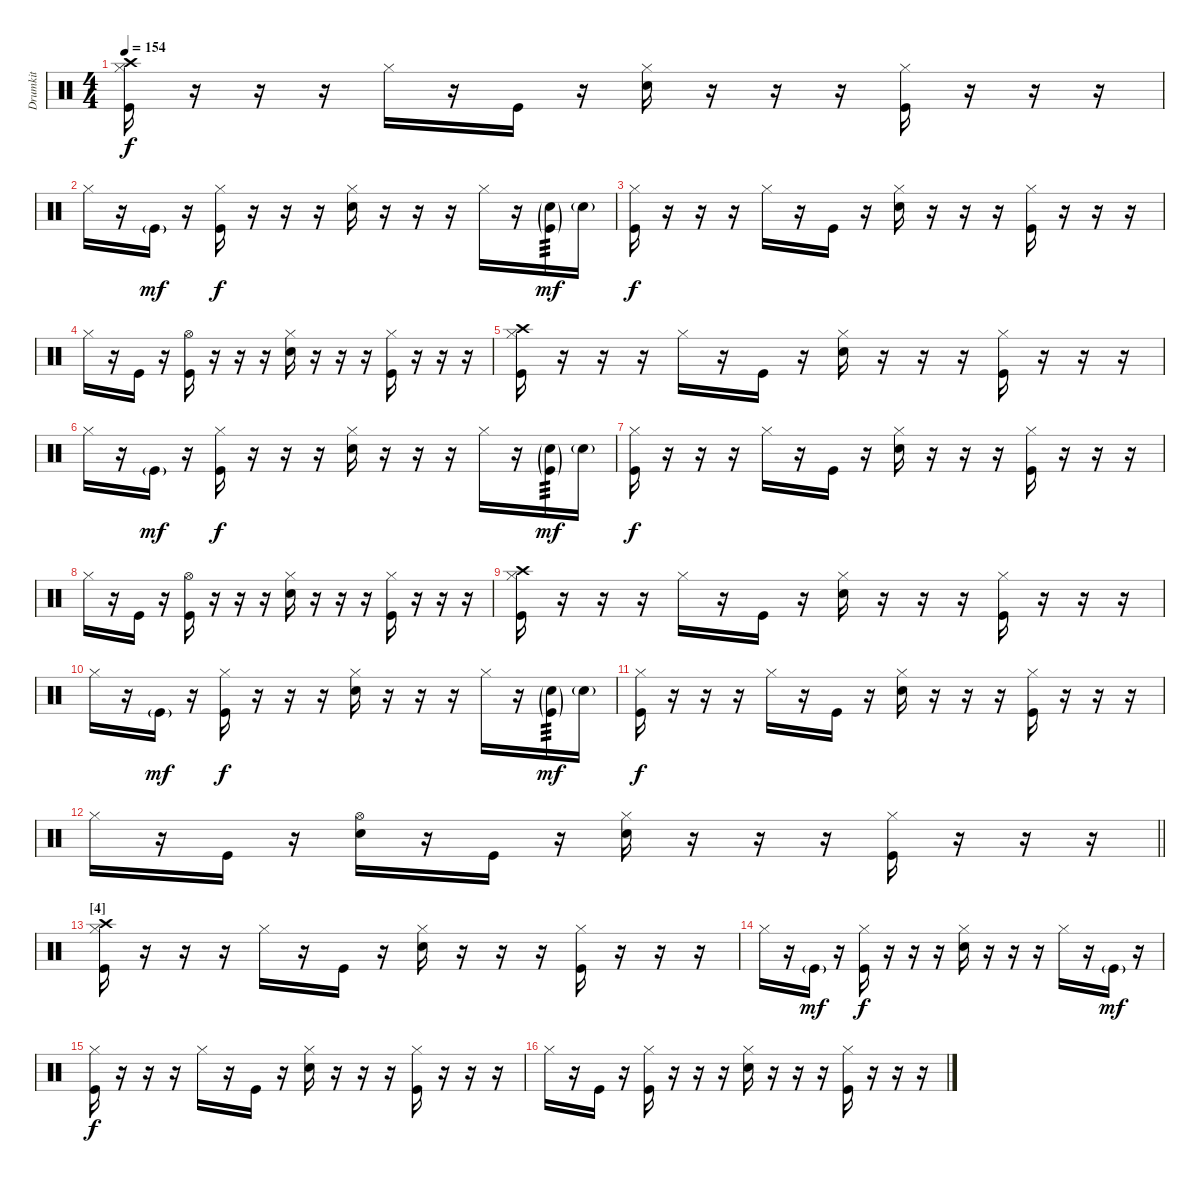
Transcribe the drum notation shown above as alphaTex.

\track ("Drumkit" "Drumkit") {instrument percussion}
\staff {score}
\articulation defaults
\ts (4 4)
\tempo 154
\clef neutral
\ks c
("Crash high (hit)" "Hi-Hat (closed)" "Kick (hit)").16{dy f} r.16 r.16 r.16 "Hi-Hat (closed)".16 r.16 "Kick (hit)".16 r.16 ("Hi-Hat (closed)" "Snare (hit) 2").16 r.16 r.16 r.16 ("Hi-Hat (closed)" "Kick (hit)").16 r.16 r.16 r.16 |
"Hi-Hat (closed)".16 r.16 "Kick (hit)"{g}.16{dy mf} r.16 ("Hi-Hat (closed)" "Kick (hit)").16{dy f} r.16 r.16 r.16 ("Hi-Hat (closed)" "Snare (hit) 2").16 r.16 r.16 r.16 "Hi-Hat (closed)".16 r.16 ("Snare (hit) 2"{g} "Kick (hit)"{g}).16{tp 3 dy mf} "Snare (hit) 2"{g}.16 |
("Hi-Hat (closed)" "Kick (hit)").16{dy f} r.16 r.16 r.16 "Hi-Hat (closed)".16 r.16 "Kick (hit)".16 r.16 ("Hi-Hat (closed)" "Snare (hit) 2").16 r.16 r.16 r.16 ("Hi-Hat (closed)" "Kick (hit)").16 r.16 r.16 r.16 |
"Hi-Hat (closed)".16 r.16 "Kick (hit)".16 r.16 ("Hi-Hat (open)" "Kick (hit)").16 r.16 r.16 r.16 ("Hi-Hat (closed)" "Snare (hit) 2").16 r.16 r.16 r.16 ("Hi-Hat (closed)" "Kick (hit)").16 r.16 r.16 r.16 |
("Crash high (hit)" "Hi-Hat (closed)" "Kick (hit)").16 r.16 r.16 r.16 "Hi-Hat (closed)".16 r.16 "Kick (hit)".16 r.16 ("Hi-Hat (closed)" "Snare (hit) 2").16 r.16 r.16 r.16 ("Hi-Hat (closed)" "Kick (hit)").16 r.16 r.16 r.16 |
"Hi-Hat (closed)".16 r.16 "Kick (hit)"{g}.16{dy mf} r.16 ("Hi-Hat (closed)" "Kick (hit)").16{dy f} r.16 r.16 r.16 ("Hi-Hat (closed)" "Snare (hit) 2").16 r.16 r.16 r.16 "Hi-Hat (closed)".16 r.16 ("Snare (hit) 2"{g} "Kick (hit)"{g}).16{tp 3 dy mf} "Snare (hit) 2"{g}.16 |
("Hi-Hat (closed)" "Kick (hit)").16{dy f} r.16 r.16 r.16 "Hi-Hat (closed)".16 r.16 "Kick (hit)".16 r.16 ("Hi-Hat (closed)" "Snare (hit) 2").16 r.16 r.16 r.16 ("Hi-Hat (closed)" "Kick (hit)").16 r.16 r.16 r.16 |
"Hi-Hat (closed)".16 r.16 "Kick (hit)".16 r.16 ("Hi-Hat (open)" "Kick (hit)").16 r.16 r.16 r.16 ("Hi-Hat (closed)" "Snare (hit) 2").16 r.16 r.16 r.16 ("Hi-Hat (closed)" "Kick (hit)").16 r.16 r.16 r.16 |
("Crash high (hit)" "Hi-Hat (closed)" "Kick (hit)").16 r.16 r.16 r.16 "Hi-Hat (closed)".16 r.16 "Kick (hit)".16 r.16 ("Hi-Hat (closed)" "Snare (hit) 2").16 r.16 r.16 r.16 ("Hi-Hat (closed)" "Kick (hit)").16 r.16 r.16 r.16 |
"Hi-Hat (closed)".16 r.16 "Kick (hit)"{g}.16{dy mf} r.16 ("Hi-Hat (closed)" "Kick (hit)").16{dy f} r.16 r.16 r.16 ("Hi-Hat (closed)" "Snare (hit) 2").16 r.16 r.16 r.16 "Hi-Hat (closed)".16 r.16 ("Snare (hit) 2"{g} "Kick (hit)"{g}).16{tp 3 dy mf} "Snare (hit) 2"{g}.16 |
("Hi-Hat (closed)" "Kick (hit)").16{dy f} r.16 r.16 r.16 "Hi-Hat (closed)".16 r.16 "Kick (hit)".16 r.16 ("Hi-Hat (closed)" "Snare (hit) 2").16 r.16 r.16 r.16 ("Hi-Hat (closed)" "Kick (hit)").16 r.16 r.16 r.16 |
\barLineRight lightlight "Hi-Hat (closed)".16
r.16 "Kick (hit)".16 r.16 ("Hi-Hat (open)" "Snare (hit) 2").16 r.16 "Kick (hit)".16 r.16 ("Hi-Hat (closed)" "Snare (hit) 2").16 r.16 r.16 r.16 ("Hi-Hat (closed)" "Kick (hit)").16 r.16 r.16 r.16 |
\section ("" "[4]")
("Crash high (hit)" "Hi-Hat (closed)" "Kick (hit)").16 r.16 r.16 r.16 "Hi-Hat (closed)".16 r.16 "Kick (hit)".16 r.16 ("Hi-Hat (closed)" "Snare (hit) 2").16 r.16 r.16 r.16 ("Hi-Hat (closed)" "Kick (hit)").16 r.16 r.16 r.16 |
"Hi-Hat (closed)".16 r.16 "Kick (hit)"{g}.16{dy mf} r.16 ("Hi-Hat (closed)" "Kick (hit)").16{dy f} r.16 r.16 r.16 ("Hi-Hat (closed)" "Snare (hit) 2").16 r.16 r.16 r.16 "Hi-Hat (closed)".16 r.16 "Kick (hit)"{g}.16{dy mf} r.16 |
("Hi-Hat (closed)" "Kick (hit)").16{dy f} r.16 r.16 r.16 "Hi-Hat (closed)".16 r.16 "Kick (hit)".16 r.16 ("Hi-Hat (closed)" "Snare (hit) 2").16 r.16 r.16 r.16 ("Hi-Hat (closed)" "Kick (hit)").16 r.16 r.16 r.16 |
"Hi-Hat (closed)".16 r.16 "Kick (hit)".16 r.16 ("Hi-Hat (closed)" "Kick (hit)").16 r.16 r.16 r.16 ("Hi-Hat (closed)" "Snare (hit) 2").16 r.16 r.16 r.16 ("Hi-Hat (closed)" "Kick (hit)").16 r.16 r.16 r.16
